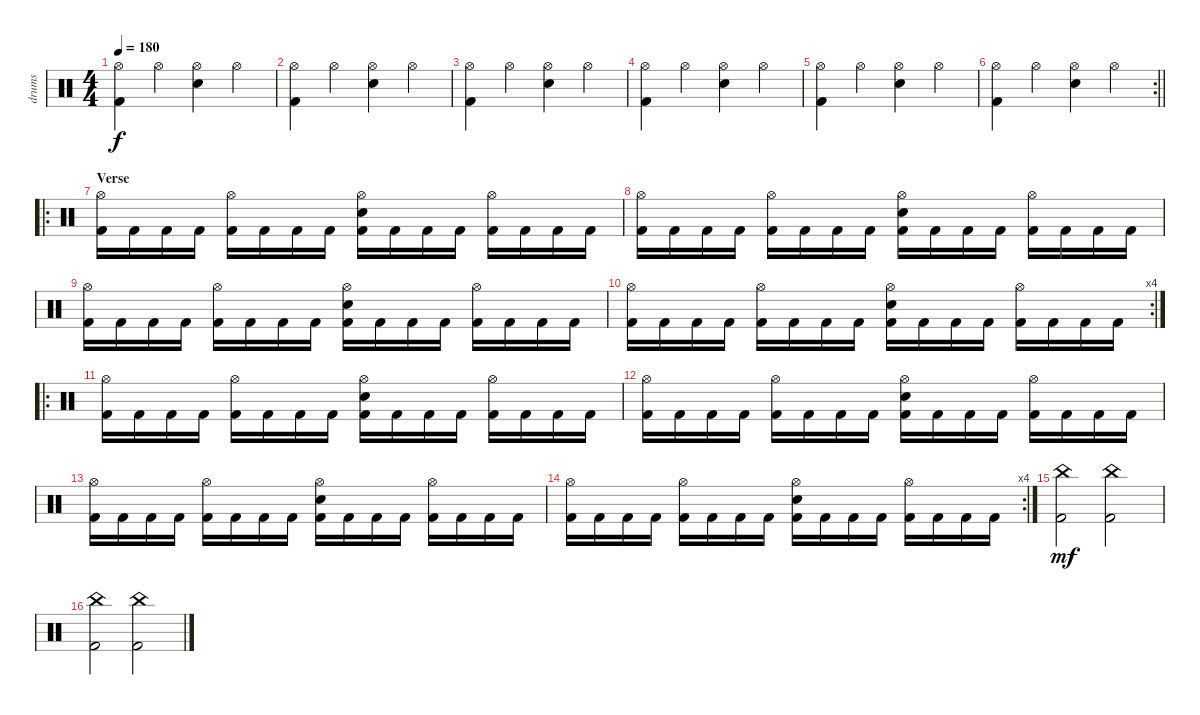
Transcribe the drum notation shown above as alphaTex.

\track ("drums" "drums") {instrument percussion}
\staff {score}
\articulation defaults
\ts (4 4)
\tempo 180
\clef neutral
\ks c
("Hi-Hat (open)" "Kick (hit) 2").4{dy f} "Hi-Hat (open)".4 ("Hi-Hat (open)" "Snare (hit) 2").4 "Hi-Hat (open)".4 |
("Hi-Hat (open)" "Kick (hit) 2").4 "Hi-Hat (open)".4 ("Hi-Hat (open)" "Snare (hit) 2").4 "Hi-Hat (open)".4 |
("Hi-Hat (open)" "Kick (hit) 2").4 "Hi-Hat (open)".4 ("Hi-Hat (open)" "Snare (hit) 2").4 "Hi-Hat (open)".4 |
("Hi-Hat (open)" "Kick (hit) 2").4 "Hi-Hat (open)".4 ("Hi-Hat (open)" "Snare (hit) 2").4 "Hi-Hat (open)".4 |
("Hi-Hat (open)" "Kick (hit) 2").4 "Hi-Hat (open)".4 ("Hi-Hat (open)" "Snare (hit) 2").4 "Hi-Hat (open)".4 |
\rc 2
\barLineRight lightlight
("Hi-Hat (open)" "Kick (hit) 2").4 "Hi-Hat (open)".4 ("Hi-Hat (open)" "Snare (hit) 2").4 "Hi-Hat (open)".4 |
\ro
\section ("" "Verse")
("Hi-Hat (open)" "Kick (hit) 2").16 "Kick (hit) 2".16 "Kick (hit) 2".16 "Kick (hit) 2".16 ("Hi-Hat (open)" "Kick (hit) 2").16 "Kick (hit) 2".16 "Kick (hit) 2".16 "Kick (hit) 2".16 ("Hi-Hat (open)" "Snare (hit) 2" "Kick (hit) 2").16 "Kick (hit) 2".16 "Kick (hit) 2".16 "Kick (hit) 2".16 ("Hi-Hat (open)" "Kick (hit) 2").16 "Kick (hit) 2".16 "Kick (hit) 2".16 "Kick (hit) 2".16 |
("Hi-Hat (open)" "Kick (hit) 2").16 "Kick (hit) 2".16 "Kick (hit) 2".16 "Kick (hit) 2".16 ("Hi-Hat (open)" "Kick (hit) 2").16 "Kick (hit) 2".16 "Kick (hit) 2".16 "Kick (hit) 2".16 ("Hi-Hat (open)" "Snare (hit) 2" "Kick (hit) 2").16 "Kick (hit) 2".16 "Kick (hit) 2".16 "Kick (hit) 2".16 ("Hi-Hat (open)" "Kick (hit) 2").16 "Kick (hit) 2".16 "Kick (hit) 2".16 "Kick (hit) 2".16 |
("Hi-Hat (open)" "Kick (hit) 2").16 "Kick (hit) 2".16 "Kick (hit) 2".16 "Kick (hit) 2".16 ("Hi-Hat (open)" "Kick (hit) 2").16 "Kick (hit) 2".16 "Kick (hit) 2".16 "Kick (hit) 2".16 ("Hi-Hat (open)" "Snare (hit) 2" "Kick (hit) 2").16 "Kick (hit) 2".16 "Kick (hit) 2".16 "Kick (hit) 2".16 ("Hi-Hat (open)" "Kick (hit) 2").16 "Kick (hit) 2".16 "Kick (hit) 2".16 "Kick (hit) 2".16 |
\rc 4
("Hi-Hat (open)" "Kick (hit) 2").16 "Kick (hit) 2".16 "Kick (hit) 2".16 "Kick (hit) 2".16 ("Hi-Hat (open)" "Kick (hit) 2").16 "Kick (hit) 2".16 "Kick (hit) 2".16 "Kick (hit) 2".16 ("Hi-Hat (open)" "Snare (hit) 2" "Kick (hit) 2").16 "Kick (hit) 2".16 "Kick (hit) 2".16 "Kick (hit) 2".16 ("Hi-Hat (open)" "Kick (hit) 2").16 "Kick (hit) 2".16 "Kick (hit) 2".16 "Kick (hit) 2".16 |
\ro
("Hi-Hat (open)" "Kick (hit) 2").16 "Kick (hit) 2".16 "Kick (hit) 2".16 "Kick (hit) 2".16 ("Hi-Hat (open)" "Kick (hit) 2").16 "Kick (hit) 2".16 "Kick (hit) 2".16 "Kick (hit) 2".16 ("Hi-Hat (open)" "Snare (hit) 2" "Kick (hit) 2").16 "Kick (hit) 2".16 "Kick (hit) 2".16 "Kick (hit) 2".16 ("Hi-Hat (open)" "Kick (hit) 2").16 "Kick (hit) 2".16 "Kick (hit) 2".16 "Kick (hit) 2".16 |
("Hi-Hat (open)" "Kick (hit) 2").16 "Kick (hit) 2".16 "Kick (hit) 2".16 "Kick (hit) 2".16 ("Hi-Hat (open)" "Kick (hit) 2").16 "Kick (hit) 2".16 "Kick (hit) 2".16 "Kick (hit) 2".16 ("Hi-Hat (open)" "Snare (hit) 2" "Kick (hit) 2").16 "Kick (hit) 2".16 "Kick (hit) 2".16 "Kick (hit) 2".16 ("Hi-Hat (open)" "Kick (hit) 2").16 "Kick (hit) 2".16 "Kick (hit) 2".16 "Kick (hit) 2".16 |
("Hi-Hat (open)" "Kick (hit) 2").16 "Kick (hit) 2".16 "Kick (hit) 2".16 "Kick (hit) 2".16 ("Hi-Hat (open)" "Kick (hit) 2").16 "Kick (hit) 2".16 "Kick (hit) 2".16 "Kick (hit) 2".16 ("Hi-Hat (open)" "Snare (hit) 2" "Kick (hit) 2").16 "Kick (hit) 2".16 "Kick (hit) 2".16 "Kick (hit) 2".16 ("Hi-Hat (open)" "Kick (hit) 2").16 "Kick (hit) 2".16 "Kick (hit) 2".16 "Kick (hit) 2".16 |
\rc 4
("Hi-Hat (open)" "Kick (hit) 2").16 "Kick (hit) 2".16 "Kick (hit) 2".16 "Kick (hit) 2".16 ("Hi-Hat (open)" "Kick (hit) 2").16 "Kick (hit) 2".16 "Kick (hit) 2".16 "Kick (hit) 2".16 ("Hi-Hat (open)" "Snare (hit) 2" "Kick (hit) 2").16 "Kick (hit) 2".16 "Kick (hit) 2".16 "Kick (hit) 2".16 ("Hi-Hat (open)" "Kick (hit) 2").16 "Kick (hit) 2".16 "Kick (hit) 2".16 "Kick (hit) 2".16 |
("China (hit)" "Kick (hit) 2").2{dy mf} ("China (hit)" "Kick (hit) 2").2 |
("China (hit)" "Kick (hit) 2").2 ("China (hit)" "Kick (hit) 2").2
